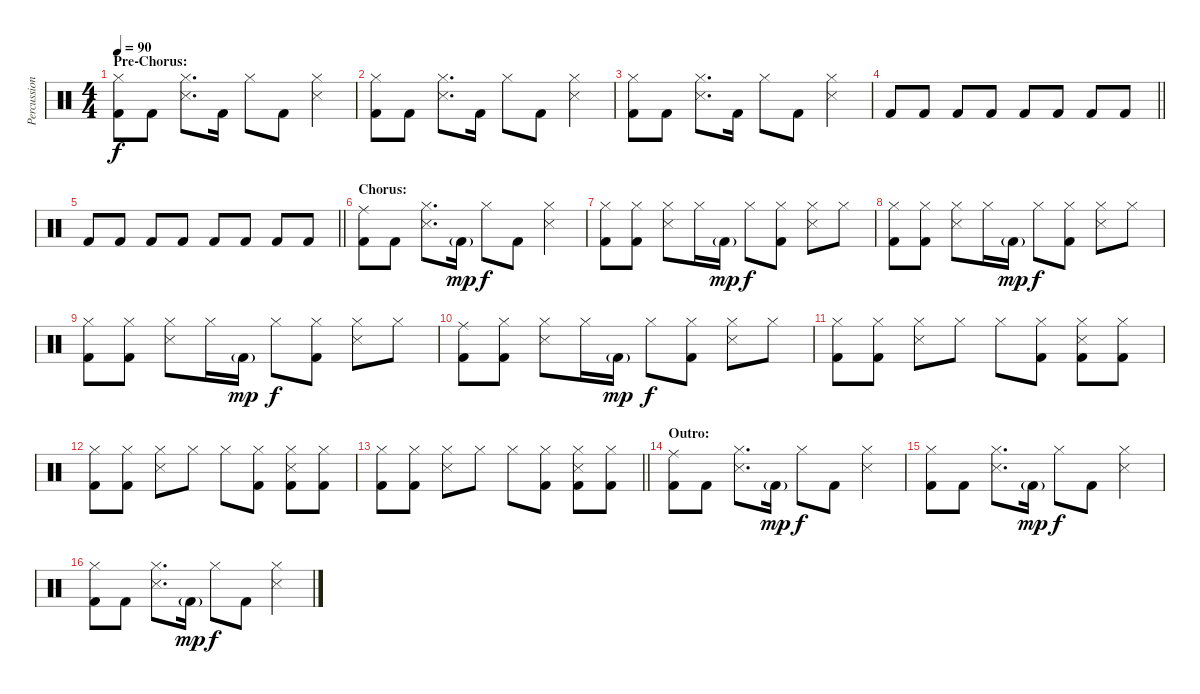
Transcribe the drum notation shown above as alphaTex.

\track ("Percussion" "Percussion") {instrument percussion}
\staff {score}
\articulation defaults
\ts (4 4)
\section ("" "Pre-Chorus:")
\tempo 90
\clef neutral
\ks c
("Hi-Hat (closed)" "Kick (hit) 2").8{dy f} "Kick (hit) 2".8 ("Hi-Hat (closed)" "Snare (side stick) 3").8{d} "Kick (hit) 2".16 "Hi-Hat (closed)".8 "Kick (hit) 2".8 ("Hi-Hat (closed)" "Snare (side stick) 3").4 |
("Hi-Hat (closed)" "Kick (hit) 2").8 "Kick (hit) 2".8 ("Hi-Hat (closed)" "Snare (side stick) 3").8{d} "Kick (hit) 2".16 "Hi-Hat (closed)".8 "Kick (hit) 2".8 ("Hi-Hat (closed)" "Snare (side stick) 3").4 |
("Hi-Hat (closed)" "Kick (hit) 2").8 "Kick (hit) 2".8 ("Hi-Hat (closed)" "Snare (side stick) 3").8{d} "Kick (hit) 2".16 "Hi-Hat (closed)".8 "Kick (hit) 2".8 ("Hi-Hat (closed)" "Snare (side stick) 3").4 |
\barLineRight lightlight "Kick (hit) 2".8 "Kick (hit) 2".8 "Kick (hit) 2".8 "Kick (hit) 2".8 "Kick (hit) 2".8 "Kick (hit) 2".8 "Kick (hit) 2".8 "Kick (hit) 2".8
|
\barLineRight lightlight "Kick (hit) 2".8 "Kick (hit) 2".8 "Kick (hit) 2".8 "Kick (hit) 2".8 "Kick (hit) 2".8 "Kick (hit) 2".8 "Kick (hit) 2".8 "Kick (hit) 2".8
|
\section ("" "Chorus:")
("Ride (middle)" "Kick (hit) 2").8 "Kick (hit) 2".8 ("Hi-Hat (closed)" "Snare (side stick) 3").8{d} "Kick (hit) 2"{g}.16{dy mp} "Hi-Hat (closed)".8{dy f} "Kick (hit) 2".8 ("Hi-Hat (closed)" "Snare (side stick) 3").4 |
("Hi-Hat (closed)" "Kick (hit) 2").8 ("Hi-Hat (closed)" "Kick (hit) 2").8 ("Hi-Hat (closed)" "Snare (side stick) 3").8 "Hi-Hat (closed)".16 "Kick (hit) 2"{g}.16{dy mp} "Hi-Hat (closed)".8{dy f} ("Hi-Hat (closed)" "Kick (hit) 2").8 ("Hi-Hat (closed)" "Snare (side stick) 3").8 "Hi-Hat (closed)".8 |
("Hi-Hat (closed)" "Kick (hit) 2").8 ("Hi-Hat (closed)" "Kick (hit) 2").8 ("Hi-Hat (closed)" "Snare (side stick) 3").8 "Hi-Hat (closed)".16 "Kick (hit) 2"{g}.16{dy mp} "Hi-Hat (closed)".8{dy f} ("Hi-Hat (closed)" "Kick (hit) 2").8 ("Hi-Hat (closed)" "Snare (side stick) 3").8 "Hi-Hat (closed)".8 |
("Hi-Hat (closed)" "Kick (hit) 2").8 ("Hi-Hat (closed)" "Kick (hit) 2").8 ("Hi-Hat (closed)" "Snare (side stick) 3").8 "Hi-Hat (closed)".16 "Kick (hit) 2"{g}.16{dy mp} "Hi-Hat (closed)".8{dy f} ("Hi-Hat (closed)" "Kick (hit) 2").8 ("Hi-Hat (closed)" "Snare (side stick) 3").8 "Hi-Hat (closed)".8 |
("Ride (middle)" "Kick (hit) 2").8 ("Hi-Hat (closed)" "Kick (hit) 2").8 ("Hi-Hat (closed)" "Snare (side stick) 3").8 "Hi-Hat (closed)".16 "Kick (hit) 2"{g}.16{dy mp} "Hi-Hat (closed)".8{dy f} ("Hi-Hat (closed)" "Kick (hit) 2").8 ("Hi-Hat (closed)" "Snare (side stick) 3").8 "Hi-Hat (closed)".8 |
("Hi-Hat (closed)" "Kick (hit) 2").8 ("Hi-Hat (closed)" "Kick (hit) 2").8 ("Hi-Hat (closed)" "Snare (side stick) 3").8 "Hi-Hat (closed)".8 "Hi-Hat (closed)".8 ("Hi-Hat (closed)" "Kick (hit) 2").8 ("Hi-Hat (closed)" "Snare (side stick) 3" "Kick (hit) 2").8 ("Hi-Hat (closed)" "Kick (hit) 2").8 |
("Hi-Hat (closed)" "Kick (hit) 2").8 ("Hi-Hat (closed)" "Kick (hit) 2").8 ("Hi-Hat (closed)" "Snare (side stick) 3").8 "Hi-Hat (closed)".8 "Hi-Hat (closed)".8 ("Hi-Hat (closed)" "Kick (hit) 2").8 ("Hi-Hat (closed)" "Snare (side stick) 3" "Kick (hit) 2").8 ("Hi-Hat (closed)" "Kick (hit) 2").8 |
\barLineRight lightlight
("Hi-Hat (closed)" "Kick (hit) 2").8 ("Hi-Hat (closed)" "Kick (hit) 2").8 ("Hi-Hat (closed)" "Snare (side stick) 3").8 "Hi-Hat (closed)".8 "Hi-Hat (closed)".8 ("Hi-Hat (closed)" "Kick (hit) 2").8 ("Hi-Hat (closed)" "Snare (side stick) 3" "Kick (hit) 2").8 ("Hi-Hat (closed)" "Kick (hit) 2").8 |
\section ("" "Outro:")
("Ride (middle)" "Kick (hit) 2").8 "Kick (hit) 2".8 ("Hi-Hat (closed)" "Snare (side stick) 3").8{d} "Kick (hit) 2"{g}.16{dy mp} "Hi-Hat (closed)".8{dy f} "Kick (hit) 2".8 ("Hi-Hat (closed)" "Snare (side stick) 3").4 |
("Hi-Hat (closed)" "Kick (hit) 2").8 "Kick (hit) 2".8 ("Hi-Hat (closed)" "Snare (side stick) 3").8{d} "Kick (hit) 2"{g}.16{dy mp} "Hi-Hat (closed)".8{dy f} "Kick (hit) 2".8 ("Hi-Hat (closed)" "Snare (side stick) 3").4 |
("Hi-Hat (closed)" "Kick (hit) 2").8 "Kick (hit) 2".8 ("Hi-Hat (closed)" "Snare (side stick) 3").8{d} "Kick (hit) 2"{g}.16{dy mp} "Hi-Hat (closed)".8{dy f} "Kick (hit) 2".8 ("Hi-Hat (closed)" "Snare (side stick) 3").4
